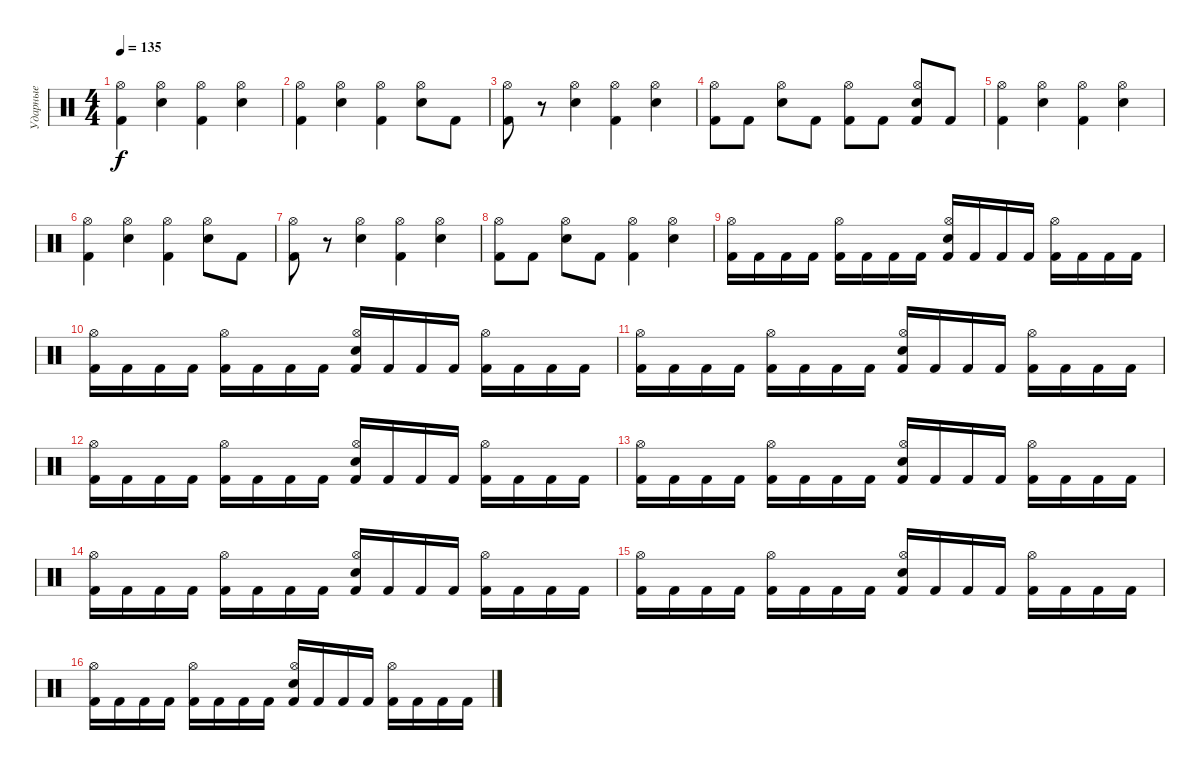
\track ("Ударные" "Ударные") {instrument percussion}
\staff {score}
\articulation defaults
\ts (4 4)
\tempo 135
\clef neutral
\ks c
("Kick (hit) 2" "Hi-Hat (open)").4{dy f} ("Electric Snare (hit)" "Hi-Hat (open)").4 ("Kick (hit) 2" "Hi-Hat (open)").4 ("Electric Snare (hit)" "Hi-Hat (open)").4 |
("Kick (hit) 2" "Hi-Hat (open)").4 ("Electric Snare (hit)" "Hi-Hat (open)").4 ("Kick (hit) 2" "Hi-Hat (open)").4 ("Electric Snare (hit)" "Hi-Hat (open)").8 "Kick (hit) 2".8 |
("Kick (hit) 2" "Hi-Hat (open)").8 r.8 ("Electric Snare (hit)" "Hi-Hat (open)").4 ("Kick (hit) 2" "Hi-Hat (open)").4 ("Electric Snare (hit)" "Hi-Hat (open)").4 |
("Kick (hit) 2" "Hi-Hat (open)").8 "Kick (hit) 2".8 ("Electric Snare (hit)" "Hi-Hat (open)").8 "Kick (hit) 2".8 ("Kick (hit) 2" "Hi-Hat (open)").8 "Kick (hit) 2".8 ("Kick (hit) 2" "Electric Snare (hit)" "Hi-Hat (open)").8 "Kick (hit) 2".8 |
("Kick (hit) 2" "Hi-Hat (open)").4 ("Electric Snare (hit)" "Hi-Hat (open)").4 ("Kick (hit) 2" "Hi-Hat (open)").4 ("Electric Snare (hit)" "Hi-Hat (open)").4 |
("Kick (hit) 2" "Hi-Hat (open)").4 ("Electric Snare (hit)" "Hi-Hat (open)").4 ("Kick (hit) 2" "Hi-Hat (open)").4 ("Electric Snare (hit)" "Hi-Hat (open)").8 "Kick (hit) 2".8 |
("Kick (hit) 2" "Hi-Hat (open)").8 r.8 ("Electric Snare (hit)" "Hi-Hat (open)").4 ("Kick (hit) 2" "Hi-Hat (open)").4 ("Electric Snare (hit)" "Hi-Hat (open)").4 |
("Kick (hit) 2" "Hi-Hat (open)").8 "Kick (hit) 2".8 ("Electric Snare (hit)" "Hi-Hat (open)").8 "Kick (hit) 2".8 ("Kick (hit) 2" "Hi-Hat (open)").4 ("Electric Snare (hit)" "Hi-Hat (open)").4 |
("Kick (hit) 2" "Hi-Hat (open)").16 "Kick (hit) 2".16 "Kick (hit) 2".16 "Kick (hit) 2".16 ("Kick (hit) 2" "Hi-Hat (open)").16 "Kick (hit) 2".16 "Kick (hit) 2".16 "Kick (hit) 2".16 ("Kick (hit) 2" "Electric Snare (hit)" "Hi-Hat (open)").16 "Kick (hit) 2".16 "Kick (hit) 2".16 "Kick (hit) 2".16 ("Kick (hit) 2" "Hi-Hat (open)").16 "Kick (hit) 2".16 "Kick (hit) 2".16 "Kick (hit) 2".16 |
("Kick (hit) 2" "Hi-Hat (open)").16 "Kick (hit) 2".16 "Kick (hit) 2".16 "Kick (hit) 2".16 ("Kick (hit) 2" "Hi-Hat (open)").16 "Kick (hit) 2".16 "Kick (hit) 2".16 "Kick (hit) 2".16 ("Kick (hit) 2" "Electric Snare (hit)" "Hi-Hat (open)").16 "Kick (hit) 2".16 "Kick (hit) 2".16 "Kick (hit) 2".16 ("Kick (hit) 2" "Hi-Hat (open)").16 "Kick (hit) 2".16 "Kick (hit) 2".16 "Kick (hit) 2".16 |
("Kick (hit) 2" "Hi-Hat (open)").16 "Kick (hit) 2".16 "Kick (hit) 2".16 "Kick (hit) 2".16 ("Kick (hit) 2" "Hi-Hat (open)").16 "Kick (hit) 2".16 "Kick (hit) 2".16 "Kick (hit) 2".16 ("Kick (hit) 2" "Electric Snare (hit)" "Hi-Hat (open)").16 "Kick (hit) 2".16 "Kick (hit) 2".16 "Kick (hit) 2".16 ("Kick (hit) 2" "Hi-Hat (open)").16 "Kick (hit) 2".16 "Kick (hit) 2".16 "Kick (hit) 2".16 |
("Kick (hit) 2" "Hi-Hat (open)").16 "Kick (hit) 2".16 "Kick (hit) 2".16 "Kick (hit) 2".16 ("Kick (hit) 2" "Hi-Hat (open)").16 "Kick (hit) 2".16 "Kick (hit) 2".16 "Kick (hit) 2".16 ("Kick (hit) 2" "Electric Snare (hit)" "Hi-Hat (open)").16 "Kick (hit) 2".16 "Kick (hit) 2".16 "Kick (hit) 2".16 ("Kick (hit) 2" "Hi-Hat (open)").16 "Kick (hit) 2".16 "Kick (hit) 2".16 "Kick (hit) 2".16 |
("Kick (hit) 2" "Hi-Hat (open)").16 "Kick (hit) 2".16 "Kick (hit) 2".16 "Kick (hit) 2".16 ("Kick (hit) 2" "Hi-Hat (open)").16 "Kick (hit) 2".16 "Kick (hit) 2".16 "Kick (hit) 2".16 ("Kick (hit) 2" "Electric Snare (hit)" "Hi-Hat (open)").16 "Kick (hit) 2".16 "Kick (hit) 2".16 "Kick (hit) 2".16 ("Kick (hit) 2" "Hi-Hat (open)").16 "Kick (hit) 2".16 "Kick (hit) 2".16 "Kick (hit) 2".16 |
("Kick (hit) 2" "Hi-Hat (open)").16 "Kick (hit) 2".16 "Kick (hit) 2".16 "Kick (hit) 2".16 ("Kick (hit) 2" "Hi-Hat (open)").16 "Kick (hit) 2".16 "Kick (hit) 2".16 "Kick (hit) 2".16 ("Kick (hit) 2" "Electric Snare (hit)" "Hi-Hat (open)").16 "Kick (hit) 2".16 "Kick (hit) 2".16 "Kick (hit) 2".16 ("Kick (hit) 2" "Hi-Hat (open)").16 "Kick (hit) 2".16 "Kick (hit) 2".16 "Kick (hit) 2".16 |
("Kick (hit) 2" "Hi-Hat (open)").16 "Kick (hit) 2".16 "Kick (hit) 2".16 "Kick (hit) 2".16 ("Kick (hit) 2" "Hi-Hat (open)").16 "Kick (hit) 2".16 "Kick (hit) 2".16 "Kick (hit) 2".16 ("Kick (hit) 2" "Electric Snare (hit)" "Hi-Hat (open)").16 "Kick (hit) 2".16 "Kick (hit) 2".16 "Kick (hit) 2".16 ("Kick (hit) 2" "Hi-Hat (open)").16 "Kick (hit) 2".16 "Kick (hit) 2".16 "Kick (hit) 2".16 |
("Kick (hit) 2" "Hi-Hat (open)").16 "Kick (hit) 2".16 "Kick (hit) 2".16 "Kick (hit) 2".16 ("Kick (hit) 2" "Hi-Hat (open)").16 "Kick (hit) 2".16 "Kick (hit) 2".16 "Kick (hit) 2".16 ("Kick (hit) 2" "Electric Snare (hit)" "Hi-Hat (open)").16 "Kick (hit) 2".16 "Kick (hit) 2".16 "Kick (hit) 2".16 ("Kick (hit) 2" "Hi-Hat (open)").16 "Kick (hit) 2".16 "Kick (hit) 2".16 "Kick (hit) 2".16
